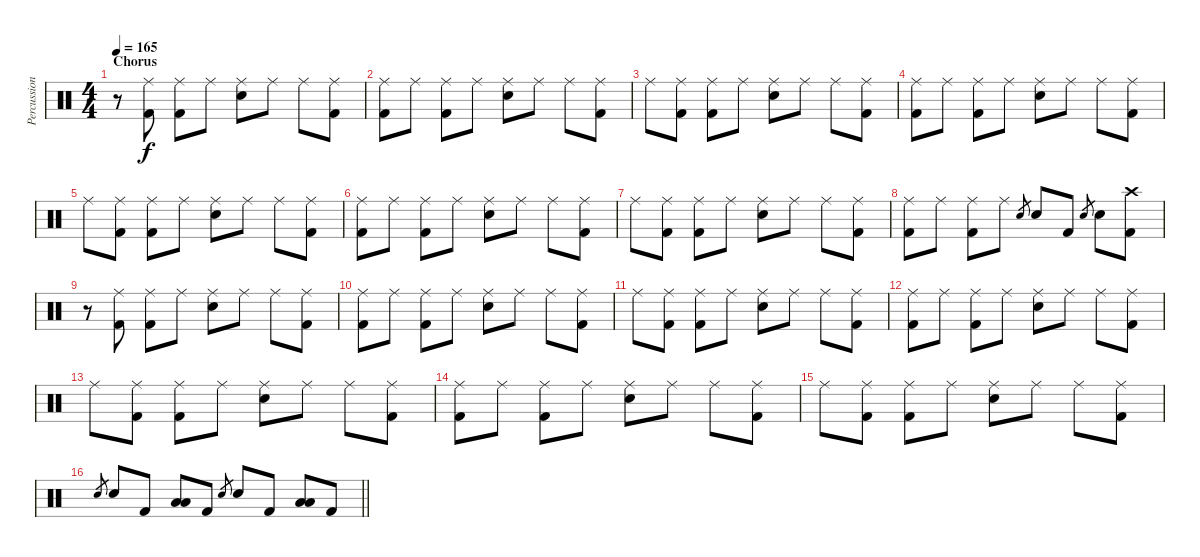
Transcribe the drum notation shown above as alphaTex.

\track ("Percussion" "Percussion") {instrument percussion}
\staff {score}
\articulation defaults
\ts (4 4)
\section ("" "Chorus")
\tempo 165
\clef neutral
\ks c
r.8{dy f} ("Ride (middle)" "Kick (hit) 2").8 ("Ride (middle)" "Kick (hit) 2").8 "Ride (middle)".8 ("Ride (middle)" "Electric Snare (hit)").8 "Ride (middle)".8 "Ride (middle)".8 ("Ride (middle)" "Kick (hit) 2").8 |
("Ride (middle)" "Kick (hit) 2").8 "Ride (middle)".8 ("Ride (middle)" "Kick (hit) 2").8 "Ride (middle)".8 ("Ride (middle)" "Electric Snare (hit)").8 "Ride (middle)".8 "Ride (middle)".8 ("Ride (middle)" "Kick (hit) 2").8 |
"Ride (middle)".8 ("Ride (middle)" "Kick (hit) 2").8 ("Ride (middle)" "Kick (hit) 2").8 "Ride (middle)".8 ("Ride (middle)" "Electric Snare (hit)").8 "Ride (middle)".8 "Ride (middle)".8 ("Ride (middle)" "Kick (hit) 2").8 |
("Ride (middle)" "Kick (hit) 2").8 "Ride (middle)".8 ("Ride (middle)" "Kick (hit) 2").8 "Ride (middle)".8 ("Ride (middle)" "Electric Snare (hit)").8 "Ride (middle)".8 "Ride (middle)".8 ("Ride (middle)" "Kick (hit) 2").8 |
"Ride (middle)".8 ("Ride (middle)" "Kick (hit) 2").8 ("Ride (middle)" "Kick (hit) 2").8 "Ride (middle)".8 ("Ride (middle)" "Electric Snare (hit)").8 "Ride (middle)".8 "Ride (middle)".8 ("Ride (middle)" "Kick (hit) 2").8 |
("Ride (middle)" "Kick (hit) 2").8 "Ride (middle)".8 ("Ride (middle)" "Kick (hit) 2").8 "Ride (middle)".8 ("Ride (middle)" "Electric Snare (hit)").8 "Ride (middle)".8 "Ride (middle)".8 ("Ride (middle)" "Kick (hit) 2").8 |
"Ride (middle)".8 ("Ride (middle)" "Kick (hit) 2").8 ("Ride (middle)" "Kick (hit) 2").8 "Ride (middle)".8 ("Ride (middle)" "Electric Snare (hit)").8 "Ride (middle)".8 "Ride (middle)".8 ("Ride (middle)" "Kick (hit) 2").8 |
("Ride (middle)" "Kick (hit) 2").8 "Ride (middle)".8 ("Ride (middle)" "Kick (hit) 2").8 "Ride (middle)".8 "Electric Snare (hit)".8{gr} "Electric Snare (hit)".8 "Kick (hit) 2".8 "Electric Snare (hit)".8{gr} "Electric Snare (hit)".8 ("Crash high (hit)" "Kick (hit) 2").8 |
r.8 ("Ride (middle)" "Kick (hit) 2").8 ("Ride (middle)" "Kick (hit) 2").8 "Ride (middle)".8 ("Ride (middle)" "Electric Snare (hit)").8 "Ride (middle)".8 "Ride (middle)".8 ("Ride (middle)" "Kick (hit) 2").8 |
("Ride (middle)" "Kick (hit) 2").8 "Ride (middle)".8 ("Ride (middle)" "Kick (hit) 2").8 "Ride (middle)".8 ("Ride (middle)" "Electric Snare (hit)").8 "Ride (middle)".8 "Ride (middle)".8 ("Ride (middle)" "Kick (hit) 2").8 |
"Ride (middle)".8 ("Ride (middle)" "Kick (hit) 2").8 ("Ride (middle)" "Kick (hit) 2").8 "Ride (middle)".8 ("Ride (middle)" "Electric Snare (hit)").8 "Ride (middle)".8 "Ride (middle)".8 ("Ride (middle)" "Kick (hit) 2").8 |
("Ride (middle)" "Kick (hit) 2").8 "Ride (middle)".8 ("Ride (middle)" "Kick (hit) 2").8 "Ride (middle)".8 ("Ride (middle)" "Electric Snare (hit)").8 "Ride (middle)".8 "Ride (middle)".8 ("Ride (middle)" "Kick (hit) 2").8 |
"Ride (middle)".8 ("Ride (middle)" "Kick (hit) 2").8 ("Ride (middle)" "Kick (hit) 2").8 "Ride (middle)".8 ("Ride (middle)" "Electric Snare (hit)").8 "Ride (middle)".8 "Ride (middle)".8 ("Ride (middle)" "Kick (hit) 2").8 |
("Ride (middle)" "Kick (hit) 2").8 "Ride (middle)".8 ("Ride (middle)" "Kick (hit) 2").8 "Ride (middle)".8 ("Ride (middle)" "Electric Snare (hit)").8 "Ride (middle)".8 "Ride (middle)".8 ("Ride (middle)" "Kick (hit) 2").8 |
"Ride (middle)".8 ("Ride (middle)" "Kick (hit) 2").8 ("Ride (middle)" "Kick (hit) 2").8 "Ride (middle)".8 ("Ride (middle)" "Electric Snare (hit)").8 "Ride (middle)".8 "Ride (middle)".8 ("Ride (middle)" "Kick (hit) 2").8 |
\barLineRight lightlight "Electric Snare (hit)".8{gr} "Electric Snare (hit)".8 "Kick (hit) 2".8
("Low Tom (hit)" "Low Floor Tom (hit)").8 "Kick (hit) 2".8 "Electric Snare (hit)".8{gr} "Electric Snare (hit)".8 "Kick (hit) 2".8 ("Low Tom (hit)" "Low Floor Tom (hit)").8 "Kick (hit) 2".8
